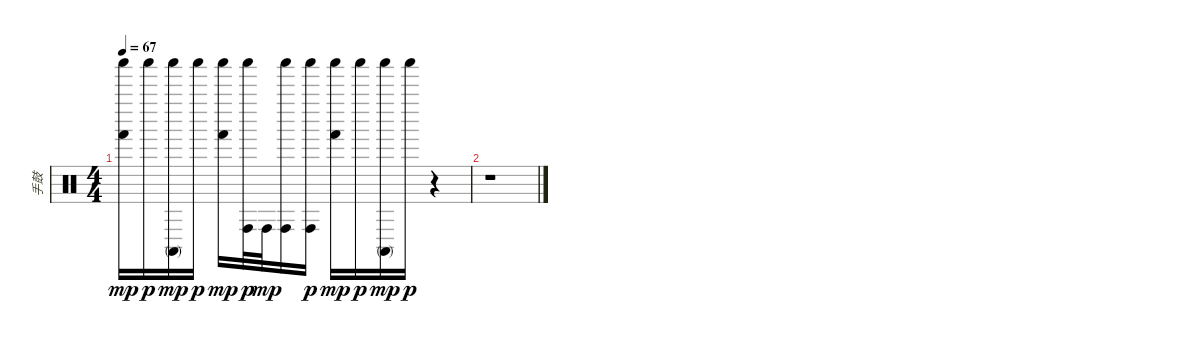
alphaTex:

\track ("手鼓" "手鼓") {instrument percussion}
\staff {score}
\articulation defaults
\ts (4 4)
\tempo 67
\clef neutral
\ks c
("Hand (hit)" "Shaker (hit)").16{dy mp} "Shaker (hit)".16{dy p} ("Conga high (mute)" "Shaker (hit)").16{dy mp} "Shaker (hit)".16{dy p} ("Hand (hit)" "Shaker (hit)").16{dy mp} ("Conga high (hit)" "Shaker (hit)").32{dy p} "Conga high (hit)".32{dy mp} ("Conga high (hit)" "Shaker (hit)").16 ("Conga high (hit)" "Shaker (hit)").16{dy p} ("Hand (hit)" "Shaker (hit)").16{dy mp} "Shaker (hit)".16{dy p} ("Conga high (mute)" "Shaker (hit)").16{dy mp} "Shaker (hit)".16{dy p} r.4 |
r.1
